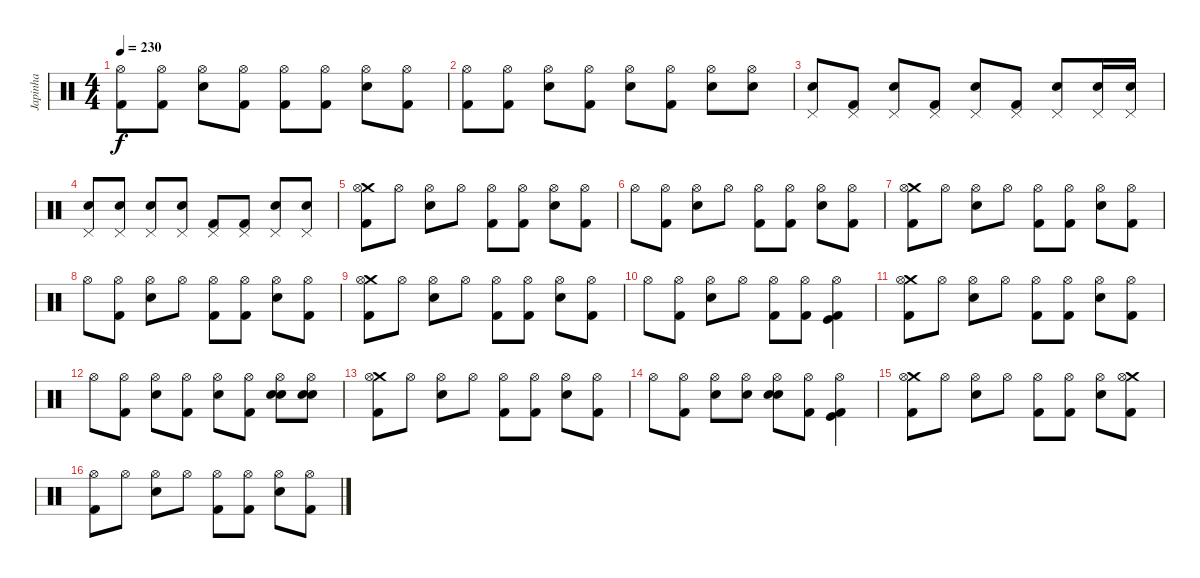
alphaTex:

\track ("Japinha" "Japinha") {instrument percussion}
\staff {score}
\articulation defaults
\ts (4 4)
\tempo 230
\clef neutral
\ks c
("Hi-Hat (open)" "Kick (hit) 2").8{dy f} ("Hi-Hat (open)" "Kick (hit) 2").8 ("Hi-Hat (open)" "Snare (hit) 2").8 ("Hi-Hat (open)" "Kick (hit) 2").8 ("Hi-Hat (open)" "Kick (hit) 2").8 ("Hi-Hat (open)" "Kick (hit) 2").8 ("Hi-Hat (open)" "Snare (hit) 2").8 ("Hi-Hat (open)" "Kick (hit) 2").8 |
("Hi-Hat (open)" "Kick (hit) 2").8 ("Hi-Hat (open)" "Kick (hit) 2").8 ("Hi-Hat (open)" "Snare (hit) 2").8 ("Hi-Hat (open)" "Kick (hit) 2").8 ("Hi-Hat (open)" "Snare (hit) 2").8 ("Hi-Hat (open)" "Kick (hit) 2").8 ("Hi-Hat (open)" "Snare (hit) 2").8 ("Hi-Hat (open)" "Snare (hit) 2").8 |
("Pedal Hi-Hat (hit)" "Snare (hit) 2").8 ("Pedal Hi-Hat (hit)" "Kick (hit) 2").8 ("Pedal Hi-Hat (hit)" "Snare (hit) 2").8 ("Pedal Hi-Hat (hit)" "Kick (hit) 2").8 ("Pedal Hi-Hat (hit)" "Snare (hit) 2").8 ("Pedal Hi-Hat (hit)" "Kick (hit) 2").8 ("Pedal Hi-Hat (hit)" "Snare (hit) 2").8 ("Pedal Hi-Hat (hit)" "Snare (hit) 2").16 ("Pedal Hi-Hat (hit)" "Snare (hit) 2").16 |
("Pedal Hi-Hat (hit)" "Snare (hit) 2").8 ("Pedal Hi-Hat (hit)" "Snare (hit) 2").8 ("Pedal Hi-Hat (hit)" "Snare (hit) 2").8 ("Pedal Hi-Hat (hit)" "Snare (hit) 2").8 ("Pedal Hi-Hat (hit)" "Kick (hit) 2").8 ("Pedal Hi-Hat (hit)" "Kick (hit) 2").8 ("Pedal Hi-Hat (hit)" "Snare (hit) 2").8 ("Pedal Hi-Hat (hit)" "Snare (hit) 2").8 |
("Crash medium (hit)" "Hi-Hat (open)" "Kick (hit) 2").8 "Hi-Hat (open)".8 ("Hi-Hat (open)" "Snare (hit) 2").8 "Hi-Hat (open)".8 ("Hi-Hat (open)" "Kick (hit) 2").8 ("Hi-Hat (open)" "Kick (hit) 2").8 ("Hi-Hat (open)" "Snare (hit) 2").8 ("Hi-Hat (open)" "Kick (hit) 2").8 |
"Hi-Hat (open)".8 ("Hi-Hat (open)" "Kick (hit) 2").8 ("Hi-Hat (open)" "Snare (hit) 2").8 "Hi-Hat (open)".8 ("Hi-Hat (open)" "Kick (hit) 2").8 ("Hi-Hat (open)" "Kick (hit) 2").8 ("Hi-Hat (open)" "Snare (hit) 2").8 ("Hi-Hat (open)" "Kick (hit) 2").8 |
("Crash medium (hit)" "Hi-Hat (open)" "Kick (hit) 2").8 "Hi-Hat (open)".8 ("Hi-Hat (open)" "Snare (hit) 2").8 "Hi-Hat (open)".8 ("Hi-Hat (open)" "Kick (hit) 2").8 ("Hi-Hat (open)" "Kick (hit) 2").8 ("Hi-Hat (open)" "Snare (hit) 2").8 ("Hi-Hat (open)" "Kick (hit) 2").8 |
"Hi-Hat (open)".8 ("Hi-Hat (open)" "Kick (hit) 2").8 ("Hi-Hat (open)" "Snare (hit) 2").8 "Hi-Hat (open)".8 ("Hi-Hat (open)" "Kick (hit) 2").8 ("Hi-Hat (open)" "Kick (hit) 2").8 ("Hi-Hat (open)" "Snare (hit) 2").8 ("Hi-Hat (open)" "Kick (hit) 2").8 |
("Crash medium (hit)" "Hi-Hat (open)" "Kick (hit) 2").8 "Hi-Hat (open)".8 ("Hi-Hat (open)" "Snare (hit) 2").8 "Hi-Hat (open)".8 ("Hi-Hat (open)" "Kick (hit) 2").8 ("Hi-Hat (open)" "Kick (hit) 2").8 ("Hi-Hat (open)" "Snare (hit) 2").8 ("Hi-Hat (open)" "Kick (hit) 2").8 |
"Hi-Hat (open)".8 ("Hi-Hat (open)" "Kick (hit) 2").8 ("Hi-Hat (open)" "Snare (hit) 2").8 "Hi-Hat (open)".8 ("Hi-Hat (open)" "Kick (hit) 2").8 ("Hi-Hat (open)" "Kick (hit) 2").8 ("Hi-Hat (open)" "Kick (hit) 2" "Kick (hit)").4 |
("Crash medium (hit)" "Hi-Hat (open)" "Kick (hit) 2").8 "Hi-Hat (open)".8 ("Hi-Hat (open)" "Snare (hit) 2").8 "Hi-Hat (open)".8 ("Hi-Hat (open)" "Kick (hit) 2").8 ("Hi-Hat (open)" "Kick (hit) 2").8 ("Hi-Hat (open)" "Snare (hit) 2").8 ("Hi-Hat (open)" "Kick (hit) 2").8 |
"Hi-Hat (open)".8 ("Hi-Hat (open)" "Kick (hit) 2").8 ("Hi-Hat (open)" "Snare (hit) 2").8 ("Hi-Hat (open)" "Kick (hit) 2").8 ("Hi-Hat (open)" "Snare (hit) 2").8 ("Hi-Hat (open)" "Kick (hit) 2").8 ("Hi-Hat (open)" "Snare (hit) 2" "Electric Snare (hit)").8 ("Hi-Hat (open)" "Snare (hit) 2" "Electric Snare (hit)").8 |
("Crash medium (hit)" "Hi-Hat (open)" "Kick (hit) 2").8 "Hi-Hat (open)".8 ("Hi-Hat (open)" "Snare (hit) 2").8 "Hi-Hat (open)".8 ("Hi-Hat (open)" "Kick (hit) 2").8 ("Hi-Hat (open)" "Kick (hit) 2").8 ("Hi-Hat (open)" "Snare (hit) 2").8 ("Hi-Hat (open)" "Kick (hit) 2").8 |
"Hi-Hat (open)".8 ("Hi-Hat (open)" "Kick (hit) 2").8 ("Hi-Hat (open)" "Snare (hit) 2").8 ("Hi-Hat (open)" "Snare (hit) 2").8 ("Hi-Hat (open)" "Snare (hit) 2" "Electric Snare (hit)").8 ("Hi-Hat (open)" "Kick (hit) 2").8 ("Hi-Hat (open)" "Kick (hit) 2" "Kick (hit)").4 |
("Crash medium (hit)" "Hi-Hat (open)" "Kick (hit) 2").8 "Hi-Hat (open)".8 ("Hi-Hat (open)" "Snare (hit) 2").8 "Hi-Hat (open)".8 ("Hi-Hat (open)" "Kick (hit) 2").8 ("Hi-Hat (open)" "Kick (hit) 2").8 ("Hi-Hat (open)" "Snare (hit) 2").8 ("Crash medium (hit)" "Hi-Hat (open)" "Kick (hit) 2").8 |
("Hi-Hat (open)" "Kick (hit) 2").8 "Hi-Hat (open)".8 ("Hi-Hat (open)" "Snare (hit) 2").8 "Hi-Hat (open)".8 ("Hi-Hat (open)" "Kick (hit) 2").8 ("Hi-Hat (open)" "Kick (hit) 2").8 ("Hi-Hat (open)" "Snare (hit) 2").8 ("Hi-Hat (open)" "Kick (hit) 2").8
